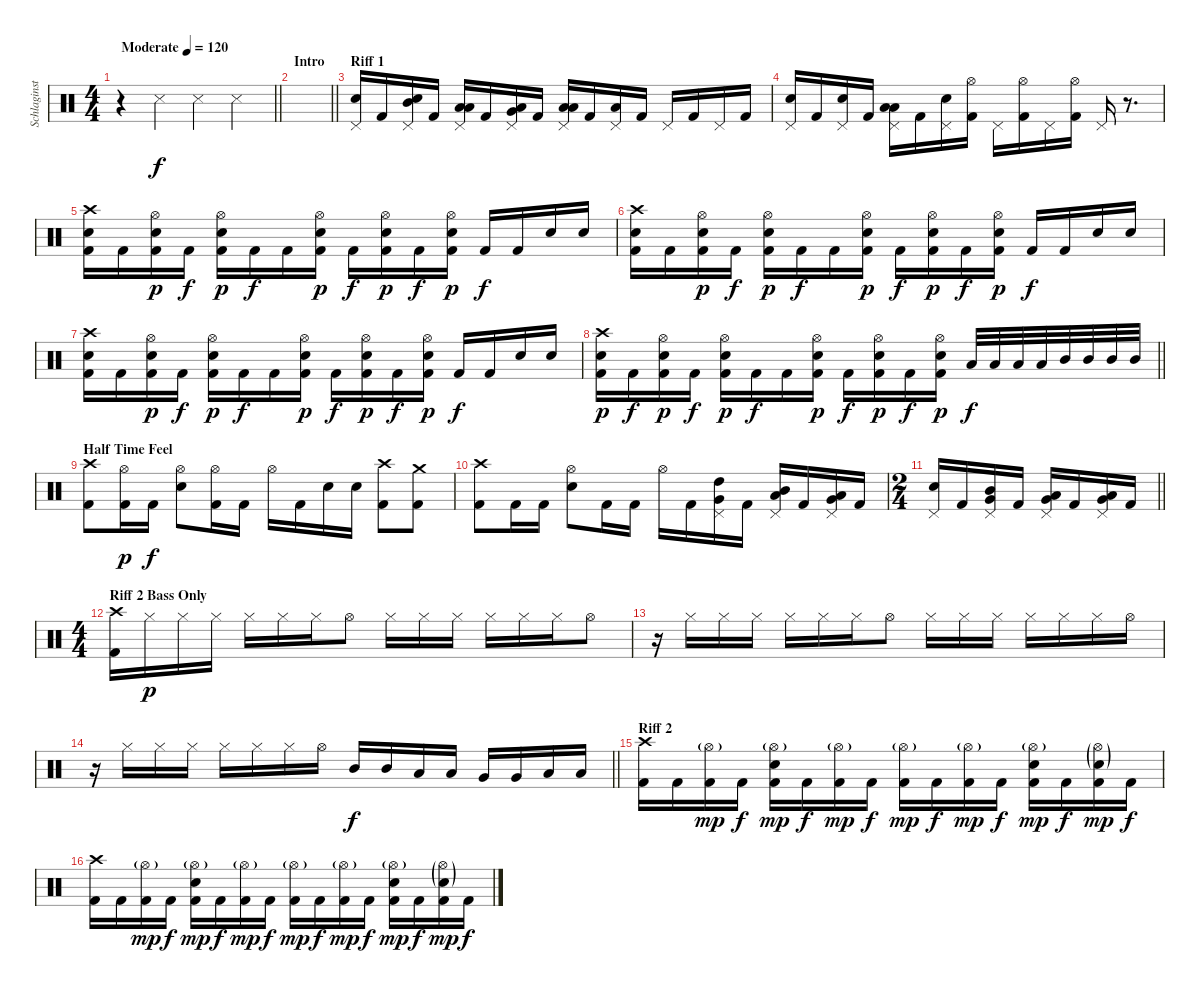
\track ("Schlaginstrumente - Auswahl" "Schlaginst") {instrument percussion}
\staff {score}
\articulation defaults
\ts (4 4)
\tempo (120 "Moderate")
\clef neutral
\barLineRight lightlight
\ks c
r.4{dy f} "Snare (side stick) 3".4 "Snare (side stick) 3".4 "Snare (side stick) 3".4 |
\section ("" "Intro")
\barLineRight lightlight
|
\section ("" "Riff 1")
("Pedal Hi-Hat (hit)" "Electric Snare (hit)").16 "Kick (hit) 2".16 ("Pedal Hi-Hat (hit)" "Mid Tom (hit)" "Electric Snare (hit)").16 "Kick (hit) 2".16 ("Pedal Hi-Hat (hit)" "Low Floor Tom (hit)" "Low Tom (hit)").16 "Kick (hit) 2".16 ("Pedal Hi-Hat (hit)" "Low Floor Tom (hit)" "Very Low Tom (hit)").16 "Kick (hit) 2".16 ("Pedal Hi-Hat (hit)" "Low Floor Tom (hit)" "Low Tom (hit)").16 "Kick (hit) 2".16 ("Pedal Hi-Hat (hit)" "Low Floor Tom (hit)").16 "Kick (hit) 2".16 "Pedal Hi-Hat (hit)".16 "Kick (hit) 2".16 "Pedal Hi-Hat (hit)".16 "Kick (hit) 2".16 |
("Pedal Hi-Hat (hit)" "Electric Snare (hit)").16 "Kick (hit) 2".16 ("Pedal Hi-Hat (hit)" "Electric Snare (hit)").16 "Kick (hit) 2".16 ("Pedal Hi-Hat (hit)" "Low Floor Tom (hit)" "Low Tom (hit)").16 "Kick (hit) 2".16 ("Pedal Hi-Hat (hit)" "Electric Snare (hit)").16 ("Hi-Hat (open)" "Kick (hit) 2").16 "Pedal Hi-Hat (hit)".16 ("Hi-Hat (open)" "Kick (hit) 2").16 "Pedal Hi-Hat (hit)".16 ("Hi-Hat (open)" "Kick (hit) 2").16 "Pedal Hi-Hat (hit)".16 r.8{d} |
("Crash high (hit)" "Electric Snare (hit)" "Kick (hit) 2").16 "Kick (hit) 2".16 ("Hi-Hat (open)" "Electric Snare (hit)" "Kick (hit) 2").16{dy p} "Kick (hit) 2".16{dy f} ("Hi-Hat (open)" "Electric Snare (hit)" "Kick (hit) 2").16{dy p} "Kick (hit) 2".16{dy f} "Kick (hit) 2".16 ("Hi-Hat (open)" "Electric Snare (hit)" "Kick (hit) 2").16{dy p} "Kick (hit) 2".16{dy f} ("Hi-Hat (open)" "Electric Snare (hit)" "Kick (hit) 2").16{dy p} "Kick (hit) 2".16{dy f} ("Hi-Hat (open)" "Electric Snare (hit)" "Kick (hit) 2").16{dy p} "Kick (hit) 2".16{dy f} "Kick (hit) 2".16 "Electric Snare (hit)".16 "Electric Snare (hit)".16 |
("Crash high (hit)" "Electric Snare (hit)" "Kick (hit) 2").16 "Kick (hit) 2".16 ("Hi-Hat (open)" "Electric Snare (hit)" "Kick (hit) 2").16{dy p} "Kick (hit) 2".16{dy f} ("Hi-Hat (open)" "Electric Snare (hit)" "Kick (hit) 2").16{dy p} "Kick (hit) 2".16{dy f} "Kick (hit) 2".16 ("Hi-Hat (open)" "Electric Snare (hit)" "Kick (hit) 2").16{dy p} "Kick (hit) 2".16{dy f} ("Hi-Hat (open)" "Electric Snare (hit)" "Kick (hit) 2").16{dy p} "Kick (hit) 2".16{dy f} ("Hi-Hat (open)" "Electric Snare (hit)" "Kick (hit) 2").16{dy p} "Kick (hit) 2".16{dy f} "Kick (hit) 2".16 "Electric Snare (hit)".16 "Electric Snare (hit)".16 |
("Crash high (hit)" "Electric Snare (hit)" "Kick (hit) 2").16 "Kick (hit) 2".16 ("Hi-Hat (open)" "Electric Snare (hit)" "Kick (hit) 2").16{dy p} "Kick (hit) 2".16{dy f} ("Hi-Hat (open)" "Electric Snare (hit)" "Kick (hit) 2").16{dy p} "Kick (hit) 2".16{dy f} "Kick (hit) 2".16 ("Hi-Hat (open)" "Electric Snare (hit)" "Kick (hit) 2").16{dy p} "Kick (hit) 2".16{dy f} ("Hi-Hat (open)" "Electric Snare (hit)" "Kick (hit) 2").16{dy p} "Kick (hit) 2".16{dy f} ("Hi-Hat (open)" "Electric Snare (hit)" "Kick (hit) 2").16{dy p} "Kick (hit) 2".16{dy f} "Kick (hit) 2".16 "Electric Snare (hit)".16 "Electric Snare (hit)".16 |
\barLineRight lightlight
("Crash high (hit)" "Electric Snare (hit)" "Kick (hit) 2").16{dy p} "Kick (hit) 2".16{dy f} ("Hi-Hat (open)" "Electric Snare (hit)" "Kick (hit) 2").16{dy p} "Kick (hit) 2".16{dy f} ("Hi-Hat (open)" "Electric Snare (hit)" "Kick (hit) 2").16{dy p} "Kick (hit) 2".16{dy f} "Kick (hit) 2".16 ("Hi-Hat (open)" "Electric Snare (hit)" "Kick (hit) 2").16{dy p} "Kick (hit) 2".16{dy f} ("Hi-Hat (open)" "Electric Snare (hit)" "Kick (hit) 2").16{dy p} "Kick (hit) 2".16{dy f} ("Hi-Hat (open)" "Electric Snare (hit)" "Kick (hit) 2").16{dy p} "Low Tom (hit)".32{dy f} "Low Tom (hit)".32 "Low Tom (hit)".32 "Low Tom (hit)".32 "Mid Tom (hit)".32 "Mid Tom (hit)".32 "Mid Tom (hit)".32 "Mid Tom (hit)".32 |
\section ("" "Half Time Feel")
("Crash high (hit)" "Kick (hit) 2").8 ("Hi-Hat (open)" "Kick (hit) 2").16{dy p} "Kick (hit) 2".16{dy f} ("Hi-Hat (open)" "Electric Snare (hit)").8 ("Hi-Hat (open)" "Kick (hit) 2").16 "Kick (hit) 2".16 "Hi-Hat (open)".16 "Kick (hit) 2".16 "Electric Snare (hit)".16 "Electric Snare (hit)".16 ("Crash high (hit)" "Kick (hit) 2").8 ("Crash medium (hit)" "Kick (hit) 2").8 |
("Crash high (hit)" "Kick (hit) 2").8 "Kick (hit) 2".16 "Kick (hit) 2".16 ("Hi-Hat (open)" "Electric Snare (hit)").8 "Kick (hit) 2".16 "Kick (hit) 2".16 "Hi-Hat (open)".16 "Kick (hit) 2".16 ("Pedal Hi-Hat (hit)" "High Tom (hit)" "Very Low Tom (hit)").16 "Kick (hit) 2".16 ("Pedal Hi-Hat (hit)" "Mid Tom (hit)" "Low Floor Tom (hit)").16 "Kick (hit) 2".16 ("Pedal Hi-Hat (hit)" "Low Floor Tom (hit)" "Very Low Tom (hit)").16 "Kick (hit) 2".16 |
\ts (2 4)
\barLineRight lightlight
("Pedal Hi-Hat (hit)" "Electric Snare (hit)").16 "Kick (hit) 2".16 ("Pedal Hi-Hat (hit)" "Mid Tom (hit)" "Very Low Tom (hit)").16 "Kick (hit) 2".16 ("Pedal Hi-Hat (hit)" "Low Tom (hit)" "Very Low Tom (hit)").16 "Kick (hit) 2".16 ("Pedal Hi-Hat (hit)" "Very Low Tom (hit)" "Low Floor Tom (hit)").16 "Kick (hit) 2".16 |
\ts (4 4)
\section ("" "Riff 2 Bass Only")
("Crash high (hit)" "Kick (hit) 2").16 "Hi-Hat (closed)".16{dy p} "Hi-Hat (closed)".16 "Hi-Hat (closed)".16 "Hi-Hat (closed)".16 "Hi-Hat (closed)".16 "Hi-Hat (closed)".16 "Hi-Hat (open)".8 "Hi-Hat (closed)".16 "Hi-Hat (closed)".16 "Hi-Hat (closed)".16 "Hi-Hat (closed)".16 "Hi-Hat (closed)".16 "Hi-Hat (closed)".16 "Hi-Hat (open)".8 |
r.16 "Hi-Hat (closed)".16 "Hi-Hat (closed)".16 "Hi-Hat (closed)".16 "Hi-Hat (closed)".16 "Hi-Hat (closed)".16 "Hi-Hat (closed)".16 "Hi-Hat (open)".8 "Hi-Hat (closed)".16 "Hi-Hat (closed)".16 "Hi-Hat (closed)".16 "Hi-Hat (closed)".16 "Hi-Hat (closed)".16 "Hi-Hat (closed)".16 "Hi-Hat (open)".16 |
\barLineRight lightlight
r.16 "Hi-Hat (closed)".16 "Hi-Hat (closed)".16 "Hi-Hat (closed)".16 "Hi-Hat (closed)".16 "Hi-Hat (closed)".16 "Hi-Hat (closed)".16 "Hi-Hat (open)".16 "Mid Tom (hit)".16{dy f} "Mid Tom (hit)".16 "Low Tom (hit)".16 "Low Tom (hit)".16 "Very Low Tom (hit)".16 "Very Low Tom (hit)".16 "Low Floor Tom (hit)".16 "Low Floor Tom (hit)".16 |
\section ("" "Riff 2")
("Crash high (hit)" "Kick (hit) 2").16 "Kick (hit) 2".16 ("Hi-Hat (open)"{g} "Kick (hit) 2").16{dy mp} "Kick (hit) 2".16{dy f} ("Hi-Hat (open)"{g} "Electric Snare (hit)" "Kick (hit) 2").16{dy mp} "Kick (hit) 2".16{dy f} ("Hi-Hat (open)"{g} "Kick (hit) 2").16{dy mp} "Kick (hit) 2".16{dy f} ("Hi-Hat (open)"{g} "Kick (hit) 2").16{dy mp} "Kick (hit) 2".16{dy f} ("Hi-Hat (open)"{g} "Kick (hit) 2").16{dy mp} "Kick (hit) 2".16{dy f} ("Hi-Hat (open)"{g} "Electric Snare (hit)" "Kick (hit) 2").16{dy mp} "Kick (hit) 2".16{dy f} ("Hi-Hat (open)"{g} "Electric Snare (hit)"{g} "Kick (hit) 2").16{dy mp} "Kick (hit) 2".16{dy f} |
("Crash high (hit)" "Kick (hit) 2").16 "Kick (hit) 2".16 ("Hi-Hat (open)"{g} "Kick (hit) 2").16{dy mp} "Kick (hit) 2".16{dy f} ("Hi-Hat (open)"{g} "Electric Snare (hit)" "Kick (hit) 2").16{dy mp} "Kick (hit) 2".16{dy f} ("Hi-Hat (open)"{g} "Kick (hit) 2").16{dy mp} "Kick (hit) 2".16{dy f} ("Hi-Hat (open)"{g} "Kick (hit) 2").16{dy mp} "Kick (hit) 2".16{dy f} ("Hi-Hat (open)"{g} "Kick (hit) 2").16{dy mp} "Kick (hit) 2".16{dy f} ("Hi-Hat (open)"{g} "Electric Snare (hit)" "Kick (hit) 2").16{dy mp} "Kick (hit) 2".16{dy f} ("Hi-Hat (open)"{g} "Electric Snare (hit)"{g} "Kick (hit) 2").16{dy mp} "Kick (hit) 2".16{dy f}
